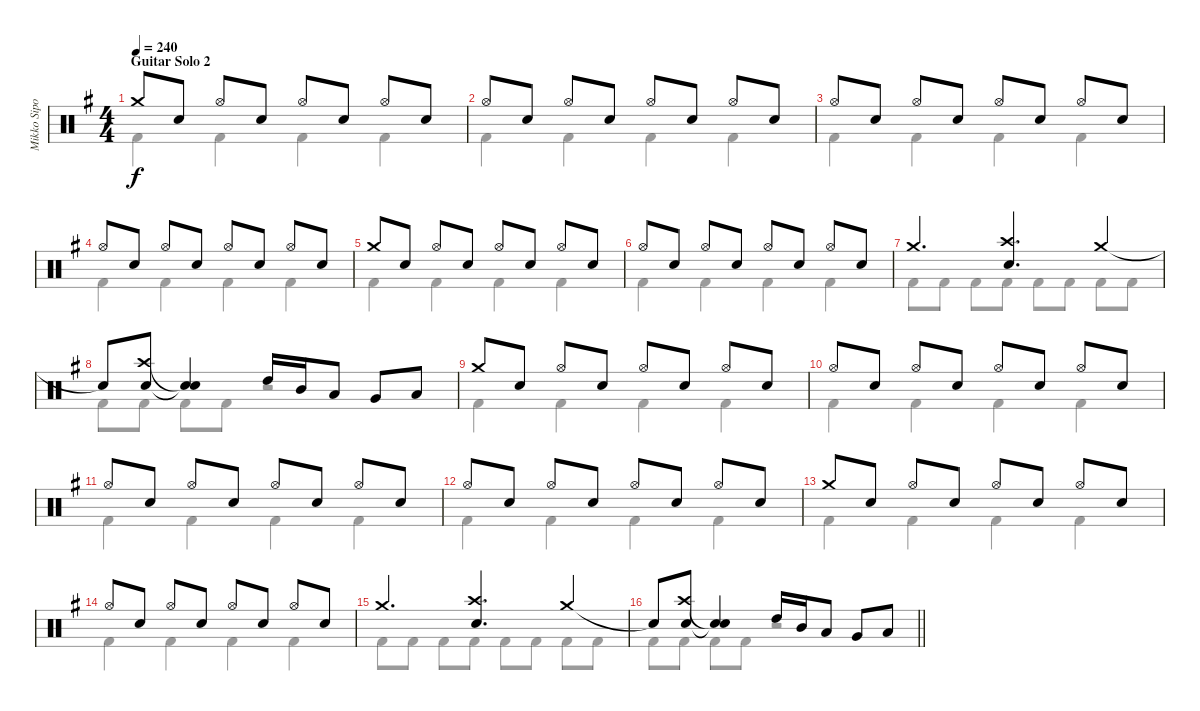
\track ("Mikko Sipola (drums)" "Mikko Sipo") {instrument percussion}
\staff {score}
\articulation defaults
\voice
\ts (4 4)
\section ("" "Guitar Solo 2")
\tempo 240
\clef neutral
\ks eminor "Crash medium (hit)".8{dy f} "Electric Snare (hit)".8 "Hi-Hat (open)".8 "Electric Snare (hit)".8 "Hi-Hat (open)".8 "Electric Snare (hit)".8 "Hi-Hat (open)".8 "Electric Snare (hit)".8
|
"Hi-Hat (open)".8 "Electric Snare (hit)".8 "Hi-Hat (open)".8 "Electric Snare (hit)".8 "Hi-Hat (open)".8 "Electric Snare (hit)".8 "Hi-Hat (open)".8 "Electric Snare (hit)".8 |
"Hi-Hat (open)".8 "Electric Snare (hit)".8 "Hi-Hat (open)".8 "Electric Snare (hit)".8 "Hi-Hat (open)".8 "Electric Snare (hit)".8 "Hi-Hat (open)".8 "Electric Snare (hit)".8 |
"Hi-Hat (open)".8 "Electric Snare (hit)".8 "Hi-Hat (open)".8 "Electric Snare (hit)".8 "Hi-Hat (open)".8 "Electric Snare (hit)".8 "Hi-Hat (open)".8 "Electric Snare (hit)".8 |
"Crash medium (hit)".8 "Electric Snare (hit)".8 "Hi-Hat (open)".8 "Electric Snare (hit)".8 "Hi-Hat (open)".8 "Electric Snare (hit)".8 "Hi-Hat (open)".8 "Electric Snare (hit)".8 |
"Hi-Hat (open)".8 "Electric Snare (hit)".8 "Hi-Hat (open)".8 "Electric Snare (hit)".8 "Hi-Hat (open)".8 "Electric Snare (hit)".8 "Hi-Hat (open)".8 "Electric Snare (hit)".8 |
"Crash medium (hit)".4{d} ("Crash high (hit)" "Electric Snare (hit)").4{d} "Crash medium (hit)".4 |
"Snare (hit)"{t}.8 ("Crash high (hit)" "Electric Snare (hit)").8 ("Snare (hit)"{t} "Snare (hit)"{t}).4 "High Tom (hit)".16 "Mid Tom (hit)".16 "Low Tom (hit)".8 "Very Low Tom (hit)".8 "Low Floor Tom (hit)".8 |
"Crash medium (hit)".8 "Electric Snare (hit)".8 "Hi-Hat (open)".8 "Electric Snare (hit)".8 "Hi-Hat (open)".8 "Electric Snare (hit)".8 "Hi-Hat (open)".8 "Electric Snare (hit)".8 |
"Hi-Hat (open)".8 "Electric Snare (hit)".8 "Hi-Hat (open)".8 "Electric Snare (hit)".8 "Hi-Hat (open)".8 "Electric Snare (hit)".8 "Hi-Hat (open)".8 "Electric Snare (hit)".8 |
"Hi-Hat (open)".8 "Electric Snare (hit)".8 "Hi-Hat (open)".8 "Electric Snare (hit)".8 "Hi-Hat (open)".8 "Electric Snare (hit)".8 "Hi-Hat (open)".8 "Electric Snare (hit)".8 |
"Hi-Hat (open)".8 "Electric Snare (hit)".8 "Hi-Hat (open)".8 "Electric Snare (hit)".8 "Hi-Hat (open)".8 "Electric Snare (hit)".8 "Hi-Hat (open)".8 "Electric Snare (hit)".8 |
"Crash medium (hit)".8 "Electric Snare (hit)".8 "Hi-Hat (open)".8 "Electric Snare (hit)".8 "Hi-Hat (open)".8 "Electric Snare (hit)".8 "Hi-Hat (open)".8 "Electric Snare (hit)".8 |
"Hi-Hat (open)".8 "Electric Snare (hit)".8 "Hi-Hat (open)".8 "Electric Snare (hit)".8 "Hi-Hat (open)".8 "Electric Snare (hit)".8 "Hi-Hat (open)".8 "Electric Snare (hit)".8 |
"Crash medium (hit)".4{d} ("Crash high (hit)" "Electric Snare (hit)").4{d} "Crash medium (hit)".4 |
\barLineRight lightlight "Snare (hit)"{t}.8
("Crash high (hit)" "Electric Snare (hit)").8 ("Snare (hit)"{t} "Snare (hit)"{t}).4 "High Tom (hit)".16 "Mid Tom (hit)".16 "Low Tom (hit)".8 "Very Low Tom (hit)".8 "Low Floor Tom (hit)".8
\voice
\clef neutral
\ottava regular
\simile none
\ks eminor "Kick (hit) 2".4{dy f} "Kick (hit) 2".4 "Kick (hit) 2".4 "Kick (hit) 2".4
|
"Kick (hit) 2".4 "Kick (hit) 2".4 "Kick (hit) 2".4 "Kick (hit) 2".4 |
"Kick (hit) 2".4 "Kick (hit) 2".4 "Kick (hit) 2".4 "Kick (hit) 2".4 |
"Kick (hit) 2".4 "Kick (hit) 2".4 "Kick (hit) 2".4 "Kick (hit) 2".4 |
"Kick (hit) 2".4 "Kick (hit) 2".4 "Kick (hit) 2".4 "Kick (hit) 2".4 |
"Kick (hit) 2".4 "Kick (hit) 2".4 "Kick (hit) 2".4 "Kick (hit) 2".4 |
"Kick (hit) 2".8 "Kick (hit) 2".8 "Kick (hit) 2".8 "Kick (hit) 2".8 "Kick (hit) 2".8 "Kick (hit) 2".8 "Kick (hit) 2".8 "Kick (hit) 2".8 |
"Kick (hit) 2".8 "Kick (hit) 2".8 "Kick (hit) 2".8 "Kick (hit) 2".8 r.2 |
"Kick (hit) 2".4 "Kick (hit) 2".4 "Kick (hit) 2".4 "Kick (hit) 2".4 |
"Kick (hit) 2".4 "Kick (hit) 2".4 "Kick (hit) 2".4 "Kick (hit) 2".4 |
"Kick (hit) 2".4 "Kick (hit) 2".4 "Kick (hit) 2".4 "Kick (hit) 2".4 |
"Kick (hit) 2".4 "Kick (hit) 2".4 "Kick (hit) 2".4 "Kick (hit) 2".4 |
"Kick (hit) 2".4 "Kick (hit) 2".4 "Kick (hit) 2".4 "Kick (hit) 2".4 |
"Kick (hit) 2".4 "Kick (hit) 2".4 "Kick (hit) 2".4 "Kick (hit) 2".4 |
"Kick (hit) 2".8 "Kick (hit) 2".8 "Kick (hit) 2".8 "Kick (hit) 2".8 "Kick (hit) 2".8 "Kick (hit) 2".8 "Kick (hit) 2".8 "Kick (hit) 2".8 |
\barLineRight lightlight "Kick (hit) 2".8 "Kick (hit) 2".8 "Kick (hit) 2".8 "Kick (hit) 2".8
r.2
